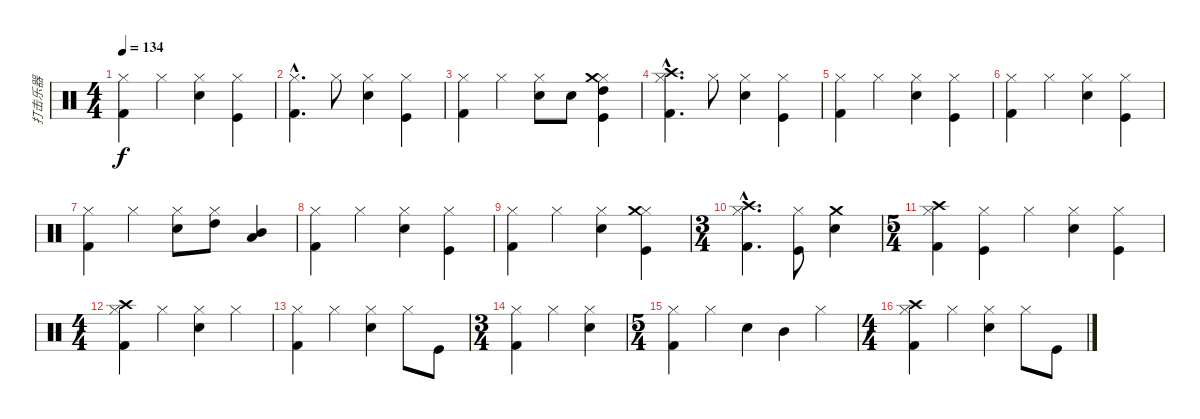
\track ("打击乐器" "打击乐器") {instrument percussion}
\staff {score}
\articulation defaults
\ts (4 4)
\tempo 134
\clef neutral
\ks c
("Hi-Hat (closed)" "Kick (hit) 2").4{dy f} "Hi-Hat (closed)".4 ("Hi-Hat (closed)" "Snare (hit) 2").4 ("Kick (hit)" "Hi-Hat (closed)").4 |
("Hi-Hat (closed)"{hac} "Kick (hit) 2"{hac}).4{d} "Hi-Hat (closed)".8 ("Hi-Hat (closed)" "Snare (hit) 2").4 ("Kick (hit)" "Hi-Hat (closed)").4 |
("Hi-Hat (closed)" "Kick (hit) 2").4 "Hi-Hat (closed)".4 ("Hi-Hat (closed)" "Snare (hit) 2").8 "Snare (hit) 2".8 ("Kick (hit)" "Hi-Hat (closed)" "High Tom (hit)" "Crash medium (hit)").4 |
("Kick (hit) 2"{hac} "Hi-Hat (closed)"{hac} "Crash high (hit)"{hac}).4{d} "Hi-Hat (closed)".8 ("Snare (hit) 2" "Hi-Hat (closed)").4 ("Hi-Hat (closed)" "Kick (hit)").4 |
("Hi-Hat (closed)" "Kick (hit) 2").4 "Hi-Hat (closed)".4 ("Hi-Hat (closed)" "Snare (hit) 2").4 ("Kick (hit)" "Hi-Hat (closed)").4 |
("Hi-Hat (closed)" "Kick (hit) 2").4 "Hi-Hat (closed)".4 ("Hi-Hat (closed)" "Snare (hit) 2").4 ("Kick (hit)" "Hi-Hat (closed)").4 |
("Kick (hit) 2" "Hi-Hat (closed)").4 "Hi-Hat (closed)".4 ("Snare (hit) 2" "Hi-Hat (closed)").8 ("High Tom (hit)" "Hi-Hat (closed)").8 ("Mid Tom (hit)" "Low Tom (hit)").4 |
("Kick (hit) 2" "Hi-Hat (closed)").4 "Hi-Hat (closed)".4 ("Snare (hit) 2" "Hi-Hat (closed)").4 ("Hi-Hat (closed)" "Kick (hit)").4 |
("Kick (hit) 2" "Hi-Hat (closed)").4 "Hi-Hat (closed)".4 ("Snare (hit) 2" "Hi-Hat (closed)").4 ("Hi-Hat (closed)" "Kick (hit)" "Crash medium (hit)").4 |
\ts (3 4)
("Kick (hit) 2"{hac} "Hi-Hat (closed)"{hac} "Crash high (hit)"{hac}).4{d} ("Kick (hit)" "Hi-Hat (closed)").8 ("Snare (hit) 2" "Crash medium (hit)").4 |
\ts (5 4)
("Hi-Hat (closed)" "Kick (hit) 2" "Crash high (hit)").4 ("Hi-Hat (closed)" "Kick (hit)").4 "Hi-Hat (closed)".4 ("Hi-Hat (closed)" "Snare (hit) 2").4 ("Hi-Hat (closed)" "Kick (hit)").4 |
\ts (4 4)
("Hi-Hat (closed)" "Kick (hit) 2" "Crash high (hit)").4 "Hi-Hat (closed)".4 ("Hi-Hat (closed)" "Snare (hit) 2").4 "Hi-Hat (closed)".4 |
("Hi-Hat (closed)" "Kick (hit) 2").4 "Hi-Hat (closed)".4 ("Hi-Hat (closed)" "Snare (hit) 2").4 "Hi-Hat (closed)".8 "Kick (hit)".8 |
\ts (3 4)
("Hi-Hat (closed)" "Kick (hit) 2").4 "Hi-Hat (closed)".4 ("Hi-Hat (closed)" "Snare (hit) 2").4 |
\ts (5 4)
("Hi-Hat (closed)" "Kick (hit) 2").4 "Hi-Hat (closed)".4 "Snare (hit) 2".4 "Mid Tom (hit)".4 "Hi-Hat (closed)".4 |
\ts (4 4)
("Hi-Hat (closed)" "Kick (hit) 2" "Crash high (hit)").4 "Hi-Hat (closed)".4 ("Hi-Hat (closed)" "Snare (hit) 2").4 "Hi-Hat (closed)".8 "Kick (hit)".8
